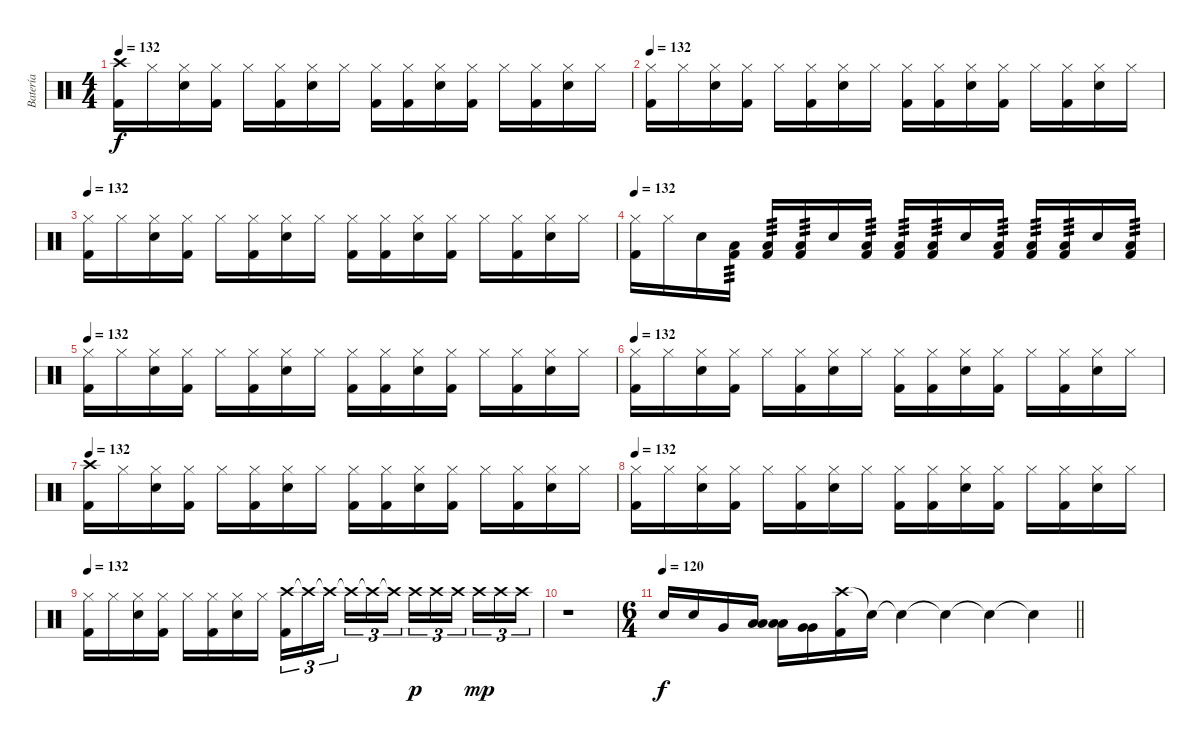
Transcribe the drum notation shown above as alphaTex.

\track ("Batería" "Batería") {instrument percussion}
\staff {score}
\articulation defaults
\ts (4 4)
\tempo 132
\clef neutral
\ks c
("Crash high (hit)" "Kick (hit) 2").16{dy f} "Hi-Hat (closed)".16 ("Hi-Hat (closed)" "Snare (hit) 2").16 ("Hi-Hat (closed)" "Kick (hit) 2").16 "Hi-Hat (closed)".16 ("Hi-Hat (closed)" "Kick (hit) 2").16 ("Hi-Hat (closed)" "Snare (hit) 2").16 "Hi-Hat (closed)".16 ("Hi-Hat (closed)" "Kick (hit) 2").16 ("Hi-Hat (closed)" "Kick (hit) 2").16 ("Hi-Hat (closed)" "Snare (hit) 2").16 ("Hi-Hat (closed)" "Kick (hit) 2").16 "Hi-Hat (closed)".16 ("Hi-Hat (closed)" "Kick (hit) 2").16 ("Hi-Hat (closed)" "Snare (hit) 2").16 "Hi-Hat (closed)".16 |
\tempo 132
("Hi-Hat (closed)" "Kick (hit) 2").16 "Hi-Hat (closed)".16 ("Hi-Hat (closed)" "Snare (hit) 2").16 ("Hi-Hat (closed)" "Kick (hit) 2").16 "Hi-Hat (closed)".16 ("Hi-Hat (closed)" "Kick (hit) 2").16 ("Hi-Hat (closed)" "Snare (hit) 2").16 "Hi-Hat (closed)".16 ("Hi-Hat (closed)" "Kick (hit) 2").16 ("Hi-Hat (closed)" "Kick (hit) 2").16 ("Hi-Hat (closed)" "Snare (hit) 2").16 ("Hi-Hat (closed)" "Kick (hit) 2").16 "Hi-Hat (closed)".16 ("Hi-Hat (closed)" "Kick (hit) 2").16 ("Hi-Hat (closed)" "Snare (hit) 2").16 "Hi-Hat (closed)".16 |
\tempo 132
("Hi-Hat (closed)" "Kick (hit) 2").16 "Hi-Hat (closed)".16 ("Hi-Hat (closed)" "Snare (hit) 2").16 ("Hi-Hat (closed)" "Kick (hit) 2").16 "Hi-Hat (closed)".16 ("Hi-Hat (closed)" "Kick (hit) 2").16 ("Hi-Hat (closed)" "Snare (hit) 2").16 "Hi-Hat (closed)".16 ("Hi-Hat (closed)" "Kick (hit) 2").16 ("Hi-Hat (closed)" "Kick (hit) 2").16 ("Hi-Hat (closed)" "Snare (hit) 2").16 ("Hi-Hat (closed)" "Kick (hit) 2").16 "Hi-Hat (closed)".16 ("Hi-Hat (closed)" "Kick (hit) 2").16 ("Hi-Hat (closed)" "Snare (hit) 2").16 "Hi-Hat (closed)".16 |
\tempo 132
("Hi-Hat (closed)" "Kick (hit) 2").16 "Hi-Hat (closed)".16 "Snare (hit) 2".16 ("Low Tom (hit)" "Kick (hit) 2").16{tp 3} ("Low Tom (hit)" "Kick (hit) 2").16{tp 3} ("Low Tom (hit)" "Kick (hit) 2").16{tp 3} "Snare (hit) 2".16 ("Low Tom (hit)" "Kick (hit) 2").16{tp 3} ("Low Tom (hit)" "Kick (hit) 2").16{tp 3} ("Low Tom (hit)" "Kick (hit) 2").16{tp 3} "Snare (hit) 2".16 ("Low Tom (hit)" "Kick (hit) 2").16{tp 3} ("Low Tom (hit)" "Kick (hit) 2").16{tp 3} ("Low Tom (hit)" "Kick (hit) 2").16{tp 3} "Snare (hit) 2".16 ("Low Tom (hit)" "Kick (hit) 2").16{tp 3} |
\tempo 132
("Hi-Hat (closed)" "Kick (hit) 2").16 "Hi-Hat (closed)".16 ("Hi-Hat (closed)" "Snare (hit) 2").16 ("Hi-Hat (closed)" "Kick (hit) 2").16 "Hi-Hat (closed)".16 ("Hi-Hat (closed)" "Kick (hit) 2").16 ("Hi-Hat (closed)" "Snare (hit) 2").16 "Hi-Hat (closed)".16 ("Hi-Hat (closed)" "Kick (hit) 2").16 ("Hi-Hat (closed)" "Kick (hit) 2").16 ("Hi-Hat (closed)" "Snare (hit) 2").16 ("Hi-Hat (closed)" "Kick (hit) 2").16 "Hi-Hat (closed)".16 ("Hi-Hat (closed)" "Kick (hit) 2").16 ("Hi-Hat (closed)" "Snare (hit) 2").16 "Hi-Hat (closed)".16 |
\tempo 132
("Hi-Hat (closed)" "Kick (hit) 2").16 "Hi-Hat (closed)".16 ("Hi-Hat (closed)" "Snare (hit) 2").16 ("Hi-Hat (closed)" "Kick (hit) 2").16 "Hi-Hat (closed)".16 ("Hi-Hat (closed)" "Kick (hit) 2").16 ("Hi-Hat (closed)" "Snare (hit) 2").16 "Hi-Hat (closed)".16 ("Hi-Hat (closed)" "Kick (hit) 2").16 ("Hi-Hat (closed)" "Kick (hit) 2").16 ("Hi-Hat (closed)" "Snare (hit) 2").16 ("Hi-Hat (closed)" "Kick (hit) 2").16 "Hi-Hat (closed)".16 ("Hi-Hat (closed)" "Kick (hit) 2").16 ("Hi-Hat (closed)" "Snare (hit) 2").16 "Hi-Hat (closed)".16 |
\tempo 132
("Crash high (hit)" "Kick (hit) 2").16 "Hi-Hat (closed)".16 ("Hi-Hat (closed)" "Snare (hit) 2").16 ("Hi-Hat (closed)" "Kick (hit) 2").16 "Hi-Hat (closed)".16 ("Hi-Hat (closed)" "Kick (hit) 2").16 ("Hi-Hat (closed)" "Snare (hit) 2").16 "Hi-Hat (closed)".16 ("Hi-Hat (closed)" "Kick (hit) 2").16 ("Hi-Hat (closed)" "Kick (hit) 2").16 ("Hi-Hat (closed)" "Snare (hit) 2").16 ("Hi-Hat (closed)" "Kick (hit) 2").16 "Hi-Hat (closed)".16 ("Hi-Hat (closed)" "Kick (hit) 2").16 ("Hi-Hat (closed)" "Snare (hit) 2").16 "Hi-Hat (closed)".16 |
\tempo 132
("Hi-Hat (closed)" "Kick (hit) 2").16 "Hi-Hat (closed)".16 ("Hi-Hat (closed)" "Snare (hit) 2").16 ("Hi-Hat (closed)" "Kick (hit) 2").16 "Hi-Hat (closed)".16 ("Hi-Hat (closed)" "Kick (hit) 2").16 ("Hi-Hat (closed)" "Snare (hit) 2").16 "Hi-Hat (closed)".16 ("Hi-Hat (closed)" "Kick (hit) 2").16 ("Hi-Hat (closed)" "Kick (hit) 2").16 ("Hi-Hat (closed)" "Snare (hit) 2").16 ("Hi-Hat (closed)" "Kick (hit) 2").16 "Hi-Hat (closed)".16 ("Hi-Hat (closed)" "Kick (hit) 2").16 ("Hi-Hat (closed)" "Snare (hit) 2").16 "Hi-Hat (closed)".16 |
\tempo 132
("Hi-Hat (closed)" "Kick (hit) 2").16 "Hi-Hat (closed)".16 ("Hi-Hat (closed)" "Snare (hit) 2").16 ("Hi-Hat (closed)" "Kick (hit) 2").16 "Hi-Hat (closed)".16 ("Hi-Hat (closed)" "Kick (hit) 2").16 ("Hi-Hat (closed)" "Snare (hit) 2").16 "Hi-Hat (closed)".16 ("Crash high (hit)" "Kick (hit) 2").16{tu (3 2)} "Crash high (hit)"{t}.16{tu (3 2)} "Crash high (hit)"{t}.16{tu (3 2)} "Crash high (hit)"{t}.16{tu (3 2)} "Crash high (hit)"{t}.16{tu (3 2)} "Crash high (hit)"{t}.16{tu (3 2)} "Crash high (hit)".16{tu (3 2) dy p} "Crash high (hit)".16{tu (3 2)} "Crash high (hit)".16{tu (3 2)} "Crash high (hit)".16{tu (3 2) dy mp} "Crash high (hit)".16{tu (3 2)} "Crash high (hit)".16{tu (3 2)} |
r.1 |
\ts (6 4)
\tempo 120
\barLineRight lightlight "Snare (hit) 2".16{dy f} "Snare (hit) 2".16 "Very Low Tom (hit)".16
("Low Tom (hit)" "Low Tom (hit)").16 ("Low Tom (hit)" "Low Tom (hit)").16 ("Very Low Tom (hit)" "Very Low Tom (hit)").16 ("Crash high (hit)" "Kick (hit) 2").16 "Snare (hit)"{t}.16 "Snare (hit)"{t}.4 "Snare (hit)"{t}.4 "Snare (hit)"{t}.4 "Snare (hit)"{t}.4
